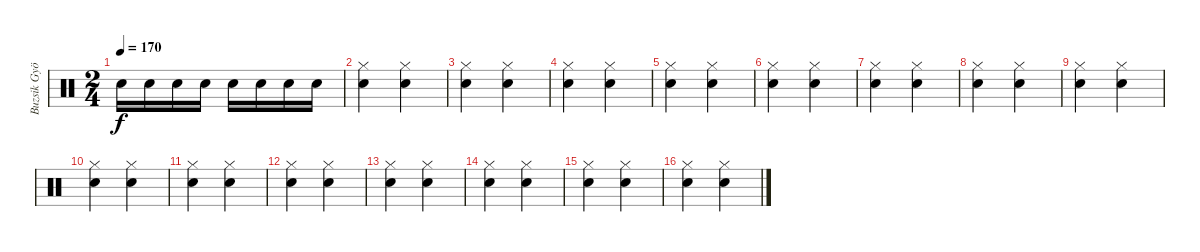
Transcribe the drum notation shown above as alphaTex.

\track ("Buzsik György (dob)" "Buzsik Gyö") {instrument percussion}
\staff {score}
\articulation defaults
\ts (2 4)
\tempo 170
\clef neutral
\ks c "Snare (hit) 2".16{dy f} "Snare (hit) 2".16 "Snare (hit) 2".16 "Snare (hit) 2".16 "Snare (hit) 2".16 "Snare (hit) 2".16 "Snare (hit) 2".16 "Snare (hit) 2".16
|
("Hi-Hat (closed)" "Snare (hit) 2").4 ("Hi-Hat (closed)" "Snare (hit) 2").4 |
("Hi-Hat (closed)" "Snare (hit) 2").4 ("Hi-Hat (closed)" "Snare (hit) 2").4 |
("Hi-Hat (closed)" "Snare (hit) 2").4 ("Hi-Hat (closed)" "Snare (hit) 2").4 |
("Hi-Hat (closed)" "Snare (hit) 2").4 ("Hi-Hat (closed)" "Snare (hit) 2").4 |
("Hi-Hat (closed)" "Snare (hit) 2").4 ("Hi-Hat (closed)" "Snare (hit) 2").4 |
("Hi-Hat (closed)" "Snare (hit) 2").4 ("Hi-Hat (closed)" "Snare (hit) 2").4 |
("Hi-Hat (closed)" "Snare (hit) 2").4 ("Hi-Hat (closed)" "Snare (hit) 2").4 |
("Hi-Hat (closed)" "Snare (hit) 2").4 ("Hi-Hat (closed)" "Snare (hit) 2").4 |
("Hi-Hat (closed)" "Snare (hit) 2").4 ("Hi-Hat (closed)" "Snare (hit) 2").4 |
("Hi-Hat (closed)" "Snare (hit) 2").4 ("Hi-Hat (closed)" "Snare (hit) 2").4 |
("Hi-Hat (closed)" "Snare (hit) 2").4 ("Hi-Hat (closed)" "Snare (hit) 2").4 |
("Hi-Hat (closed)" "Snare (hit) 2").4 ("Hi-Hat (closed)" "Snare (hit) 2").4 |
("Hi-Hat (closed)" "Snare (hit) 2").4 ("Hi-Hat (closed)" "Snare (hit) 2").4 |
("Hi-Hat (closed)" "Snare (hit) 2").4 ("Hi-Hat (closed)" "Snare (hit) 2").4 |
("Hi-Hat (closed)" "Snare (hit) 2").4 ("Hi-Hat (closed)" "Snare (hit) 2").4
